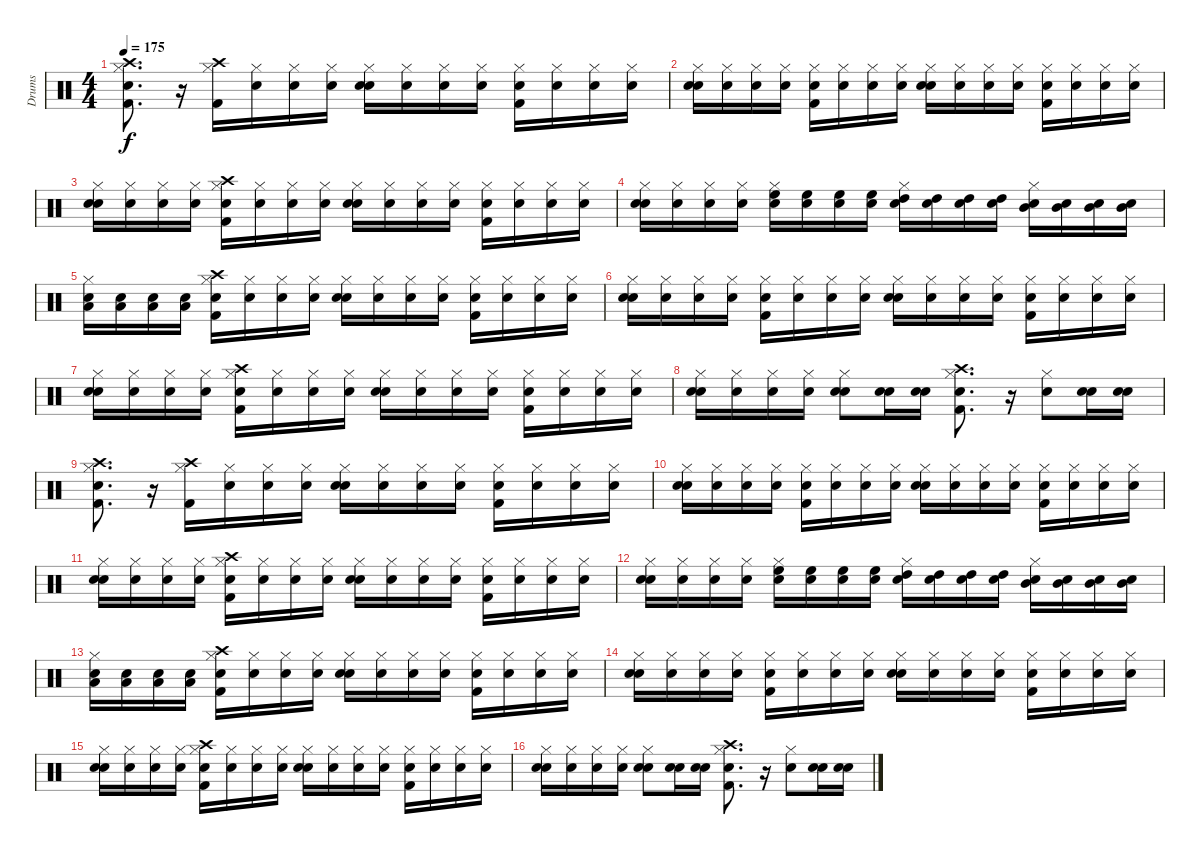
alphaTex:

\track ("Drums" "Drums") {instrument percussion}
\staff {score}
\articulation defaults
\ts (4 4)
\tempo 175
\clef neutral
\ks c
("Snare (hit)" "Kick (hit) 2" "Hi-Hat (closed)" "Crash high (hit)").8{d dy f} r.16 ("Kick (hit) 2" "Hi-Hat (closed)" "Crash high (hit)").16 ("Snare (hit)" "Hi-Hat (closed)").16 ("Snare (hit)" "Hi-Hat (closed)").16 ("Snare (hit)" "Hi-Hat (closed)").16 ("Snare (hit)" "Snare (hit) 2" "Hi-Hat (closed)").16 ("Snare (hit)" "Hi-Hat (closed)").16 ("Snare (hit)" "Hi-Hat (closed)").16 ("Snare (hit)" "Hi-Hat (closed)").16 ("Snare (hit)" "Kick (hit) 2" "Hi-Hat (closed)").16 ("Snare (hit)" "Hi-Hat (closed)").16 ("Snare (hit)" "Hi-Hat (closed)").16 ("Snare (hit)" "Hi-Hat (closed)").16 |
("Snare (hit)" "Snare (hit) 2" "Hi-Hat (closed)").16 ("Snare (hit)" "Hi-Hat (closed)").16 ("Snare (hit)" "Hi-Hat (closed)").16 ("Snare (hit)" "Hi-Hat (closed)").16 ("Snare (hit)" "Kick (hit) 2" "Hi-Hat (closed)").16 ("Snare (hit)" "Hi-Hat (closed)").16 ("Snare (hit)" "Hi-Hat (closed)").16 ("Snare (hit)" "Hi-Hat (closed)").16 ("Snare (hit)" "Snare (hit) 2" "Hi-Hat (closed)").16 ("Snare (hit)" "Hi-Hat (closed)").16 ("Snare (hit)" "Hi-Hat (closed)").16 ("Snare (hit)" "Hi-Hat (closed)").16 ("Snare (hit)" "Kick (hit) 2" "Hi-Hat (closed)").16 ("Snare (hit)" "Hi-Hat (closed)").16 ("Snare (hit)" "Hi-Hat (closed)").16 ("Snare (hit)" "Hi-Hat (closed)").16 |
("Snare (hit)" "Snare (hit) 2" "Hi-Hat (closed)").16 ("Snare (hit)" "Hi-Hat (closed)").16 ("Snare (hit)" "Hi-Hat (closed)").16 ("Snare (hit)" "Hi-Hat (closed)").16 ("Snare (hit)" "Kick (hit) 2" "Hi-Hat (closed)" "Crash high (hit)").16 ("Snare (hit)" "Hi-Hat (closed)").16 ("Snare (hit)" "Hi-Hat (closed)").16 ("Snare (hit)" "Hi-Hat (closed)").16 ("Snare (hit)" "Snare (hit) 2" "Hi-Hat (closed)").16 ("Snare (hit)" "Hi-Hat (closed)").16 ("Snare (hit)" "Hi-Hat (closed)").16 ("Snare (hit)" "Hi-Hat (closed)").16 ("Snare (hit)" "Kick (hit) 2" "Hi-Hat (closed)").16 ("Snare (hit)" "Hi-Hat (closed)").16 ("Snare (hit)" "Hi-Hat (closed)").16 ("Snare (hit)" "Hi-Hat (closed)").16 |
("Snare (hit)" "Snare (hit) 2" "Hi-Hat (closed)").16 ("Snare (hit)" "Hi-Hat (closed)").16 ("Snare (hit)" "Hi-Hat (closed)").16 ("Snare (hit)" "Hi-Hat (closed)").16 ("Snare (hit)" "Hi-Hat (closed)" "High Floor Tom (hit)").16 ("Snare (hit)" "High Floor Tom (hit)").16 ("Snare (hit)" "High Floor Tom (hit)").16 ("Snare (hit)" "High Floor Tom (hit)").16 ("Snare (hit)" "Hi-Hat (closed)" "High Tom (hit)").16 ("Snare (hit)" "High Tom (hit)").16 ("Snare (hit)" "High Tom (hit)").16 ("Snare (hit)" "High Tom (hit)").16 ("Snare (hit)" "Hi-Hat (closed)" "Mid Tom (hit)").16 ("Snare (hit)" "Mid Tom (hit)").16 ("Snare (hit)" "Mid Tom (hit)").16 ("Snare (hit)" "Mid Tom (hit)").16 |
("Snare (hit)" "Hi-Hat (closed)" "Low Tom (hit)").16 ("Snare (hit)" "Low Tom (hit)").16 ("Snare (hit)" "Low Tom (hit)").16 ("Snare (hit)" "Low Tom (hit)").16 ("Snare (hit)" "Kick (hit) 2" "Hi-Hat (closed)" "Crash high (hit)").16 ("Snare (hit)" "Hi-Hat (closed)").16 ("Snare (hit)" "Hi-Hat (closed)").16 ("Snare (hit)" "Hi-Hat (closed)").16 ("Snare (hit)" "Snare (hit) 2" "Hi-Hat (closed)").16 ("Snare (hit)" "Hi-Hat (closed)").16 ("Snare (hit)" "Hi-Hat (closed)").16 ("Snare (hit)" "Hi-Hat (closed)").16 ("Snare (hit)" "Kick (hit) 2" "Hi-Hat (closed)").16 ("Snare (hit)" "Hi-Hat (closed)").16 ("Snare (hit)" "Hi-Hat (closed)").16 ("Snare (hit)" "Hi-Hat (closed)").16 |
("Snare (hit)" "Snare (hit) 2" "Hi-Hat (closed)").16 ("Snare (hit)" "Hi-Hat (closed)").16 ("Snare (hit)" "Hi-Hat (closed)").16 ("Snare (hit)" "Hi-Hat (closed)").16 ("Snare (hit)" "Kick (hit) 2" "Hi-Hat (closed)").16 ("Snare (hit)" "Hi-Hat (closed)").16 ("Snare (hit)" "Hi-Hat (closed)").16 ("Snare (hit)" "Hi-Hat (closed)").16 ("Snare (hit)" "Snare (hit) 2" "Hi-Hat (closed)").16 ("Snare (hit)" "Hi-Hat (closed)").16 ("Snare (hit)" "Hi-Hat (closed)").16 ("Snare (hit)" "Hi-Hat (closed)").16 ("Snare (hit)" "Kick (hit) 2" "Hi-Hat (closed)").16 ("Snare (hit)" "Hi-Hat (closed)").16 ("Snare (hit)" "Hi-Hat (closed)").16 ("Snare (hit)" "Hi-Hat (closed)").16 |
("Snare (hit)" "Snare (hit) 2" "Hi-Hat (closed)").16 ("Snare (hit)" "Hi-Hat (closed)").16 ("Snare (hit)" "Hi-Hat (closed)").16 ("Snare (hit)" "Hi-Hat (closed)").16 ("Snare (hit)" "Kick (hit) 2" "Hi-Hat (closed)" "Crash high (hit)").16 ("Snare (hit)" "Hi-Hat (closed)").16 ("Snare (hit)" "Hi-Hat (closed)").16 ("Snare (hit)" "Hi-Hat (closed)").16 ("Snare (hit)" "Snare (hit) 2" "Hi-Hat (closed)").16 ("Snare (hit)" "Hi-Hat (closed)").16 ("Snare (hit)" "Hi-Hat (closed)").16 ("Snare (hit)" "Hi-Hat (closed)").16 ("Snare (hit)" "Kick (hit) 2" "Hi-Hat (closed)").16 ("Snare (hit)" "Hi-Hat (closed)").16 ("Snare (hit)" "Hi-Hat (closed)").16 ("Snare (hit)" "Hi-Hat (closed)").16 |
("Snare (hit)" "Snare (hit) 2" "Hi-Hat (closed)").16 ("Snare (hit)" "Hi-Hat (closed)").16 ("Snare (hit)" "Hi-Hat (closed)").16 ("Snare (hit)" "Hi-Hat (closed)").16 ("Snare (hit)" "Snare (hit) 2" "Hi-Hat (closed)").8 ("Snare (hit)" "Snare (hit) 2").16 ("Snare (hit)" "Snare (hit) 2").16 ("Snare (hit)" "Kick (hit) 2" "Hi-Hat (closed)" "Crash high (hit)").8{d} r.16 ("Snare (hit) 2" "Hi-Hat (closed)").8 ("Snare (hit)" "Snare (hit) 2").16 ("Snare (hit)" "Snare (hit) 2").16 |
("Snare (hit)" "Kick (hit) 2" "Hi-Hat (closed)" "Crash high (hit)").8{d} r.16 ("Kick (hit) 2" "Hi-Hat (closed)" "Crash high (hit)").16 ("Snare (hit)" "Hi-Hat (closed)").16 ("Snare (hit)" "Hi-Hat (closed)").16 ("Snare (hit)" "Hi-Hat (closed)").16 ("Snare (hit)" "Snare (hit) 2" "Hi-Hat (closed)").16 ("Snare (hit)" "Hi-Hat (closed)").16 ("Snare (hit)" "Hi-Hat (closed)").16 ("Snare (hit)" "Hi-Hat (closed)").16 ("Snare (hit)" "Kick (hit) 2" "Hi-Hat (closed)").16 ("Snare (hit)" "Hi-Hat (closed)").16 ("Snare (hit)" "Hi-Hat (closed)").16 ("Snare (hit)" "Hi-Hat (closed)").16 |
("Snare (hit)" "Snare (hit) 2" "Hi-Hat (closed)").16 ("Snare (hit)" "Hi-Hat (closed)").16 ("Snare (hit)" "Hi-Hat (closed)").16 ("Snare (hit)" "Hi-Hat (closed)").16 ("Snare (hit)" "Kick (hit) 2" "Hi-Hat (closed)").16 ("Snare (hit)" "Hi-Hat (closed)").16 ("Snare (hit)" "Hi-Hat (closed)").16 ("Snare (hit)" "Hi-Hat (closed)").16 ("Snare (hit)" "Snare (hit) 2" "Hi-Hat (closed)").16 ("Snare (hit)" "Hi-Hat (closed)").16 ("Snare (hit)" "Hi-Hat (closed)").16 ("Snare (hit)" "Hi-Hat (closed)").16 ("Snare (hit)" "Kick (hit) 2" "Hi-Hat (closed)").16 ("Snare (hit)" "Hi-Hat (closed)").16 ("Snare (hit)" "Hi-Hat (closed)").16 ("Snare (hit)" "Hi-Hat (closed)").16 |
("Snare (hit)" "Snare (hit) 2" "Hi-Hat (closed)").16 ("Snare (hit)" "Hi-Hat (closed)").16 ("Snare (hit)" "Hi-Hat (closed)").16 ("Snare (hit)" "Hi-Hat (closed)").16 ("Snare (hit)" "Kick (hit) 2" "Hi-Hat (closed)" "Crash high (hit)").16 ("Snare (hit)" "Hi-Hat (closed)").16 ("Snare (hit)" "Hi-Hat (closed)").16 ("Snare (hit)" "Hi-Hat (closed)").16 ("Snare (hit)" "Snare (hit) 2" "Hi-Hat (closed)").16 ("Snare (hit)" "Hi-Hat (closed)").16 ("Snare (hit)" "Hi-Hat (closed)").16 ("Snare (hit)" "Hi-Hat (closed)").16 ("Snare (hit)" "Kick (hit) 2" "Hi-Hat (closed)").16 ("Snare (hit)" "Hi-Hat (closed)").16 ("Snare (hit)" "Hi-Hat (closed)").16 ("Snare (hit)" "Hi-Hat (closed)").16 |
("Snare (hit)" "Snare (hit) 2" "Hi-Hat (closed)").16 ("Snare (hit)" "Hi-Hat (closed)").16 ("Snare (hit)" "Hi-Hat (closed)").16 ("Snare (hit)" "Hi-Hat (closed)").16 ("Snare (hit)" "Hi-Hat (closed)" "High Floor Tom (hit)").16 ("Snare (hit)" "High Floor Tom (hit)").16 ("Snare (hit)" "High Floor Tom (hit)").16 ("Snare (hit)" "High Floor Tom (hit)").16 ("Snare (hit)" "Hi-Hat (closed)" "High Tom (hit)").16 ("Snare (hit)" "High Tom (hit)").16 ("Snare (hit)" "High Tom (hit)").16 ("Snare (hit)" "High Tom (hit)").16 ("Snare (hit)" "Hi-Hat (closed)" "Mid Tom (hit)").16 ("Snare (hit)" "Mid Tom (hit)").16 ("Snare (hit)" "Mid Tom (hit)").16 ("Snare (hit)" "Mid Tom (hit)").16 |
("Snare (hit)" "Hi-Hat (closed)" "Low Tom (hit)").16 ("Snare (hit)" "Low Tom (hit)").16 ("Snare (hit)" "Low Tom (hit)").16 ("Snare (hit)" "Low Tom (hit)").16 ("Snare (hit)" "Kick (hit) 2" "Hi-Hat (closed)" "Crash high (hit)").16 ("Snare (hit)" "Hi-Hat (closed)").16 ("Snare (hit)" "Hi-Hat (closed)").16 ("Snare (hit)" "Hi-Hat (closed)").16 ("Snare (hit)" "Snare (hit) 2" "Hi-Hat (closed)").16 ("Snare (hit)" "Hi-Hat (closed)").16 ("Snare (hit)" "Hi-Hat (closed)").16 ("Snare (hit)" "Hi-Hat (closed)").16 ("Snare (hit)" "Kick (hit) 2" "Hi-Hat (closed)").16 ("Snare (hit)" "Hi-Hat (closed)").16 ("Snare (hit)" "Hi-Hat (closed)").16 ("Snare (hit)" "Hi-Hat (closed)").16 |
("Snare (hit)" "Snare (hit) 2" "Hi-Hat (closed)").16 ("Snare (hit)" "Hi-Hat (closed)").16 ("Snare (hit)" "Hi-Hat (closed)").16 ("Snare (hit)" "Hi-Hat (closed)").16 ("Snare (hit)" "Kick (hit) 2" "Hi-Hat (closed)").16 ("Snare (hit)" "Hi-Hat (closed)").16 ("Snare (hit)" "Hi-Hat (closed)").16 ("Snare (hit)" "Hi-Hat (closed)").16 ("Snare (hit)" "Snare (hit) 2" "Hi-Hat (closed)").16 ("Snare (hit)" "Hi-Hat (closed)").16 ("Snare (hit)" "Hi-Hat (closed)").16 ("Snare (hit)" "Hi-Hat (closed)").16 ("Snare (hit)" "Kick (hit) 2" "Hi-Hat (closed)").16 ("Snare (hit)" "Hi-Hat (closed)").16 ("Snare (hit)" "Hi-Hat (closed)").16 ("Snare (hit)" "Hi-Hat (closed)").16 |
("Snare (hit)" "Snare (hit) 2" "Hi-Hat (closed)").16 ("Snare (hit)" "Hi-Hat (closed)").16 ("Snare (hit)" "Hi-Hat (closed)").16 ("Snare (hit)" "Hi-Hat (closed)").16 ("Snare (hit)" "Kick (hit) 2" "Hi-Hat (closed)" "Crash high (hit)").16 ("Snare (hit)" "Hi-Hat (closed)").16 ("Snare (hit)" "Hi-Hat (closed)").16 ("Snare (hit)" "Hi-Hat (closed)").16 ("Snare (hit)" "Snare (hit) 2" "Hi-Hat (closed)").16 ("Snare (hit)" "Hi-Hat (closed)").16 ("Snare (hit)" "Hi-Hat (closed)").16 ("Snare (hit)" "Hi-Hat (closed)").16 ("Snare (hit)" "Kick (hit) 2" "Hi-Hat (closed)").16 ("Snare (hit)" "Hi-Hat (closed)").16 ("Snare (hit)" "Hi-Hat (closed)").16 ("Snare (hit)" "Hi-Hat (closed)").16 |
("Snare (hit)" "Snare (hit) 2" "Hi-Hat (closed)").16 ("Snare (hit)" "Hi-Hat (closed)").16 ("Snare (hit)" "Hi-Hat (closed)").16 ("Snare (hit)" "Hi-Hat (closed)").16 ("Snare (hit)" "Snare (hit) 2" "Hi-Hat (closed)").8 ("Snare (hit)" "Snare (hit) 2").16 ("Snare (hit)" "Snare (hit) 2").16 ("Snare (hit)" "Kick (hit) 2" "Hi-Hat (closed)" "Crash high (hit)").8{d} r.16 ("Snare (hit) 2" "Hi-Hat (closed)").8 ("Snare (hit)" "Snare (hit) 2").16 ("Snare (hit)" "Snare (hit) 2").16
